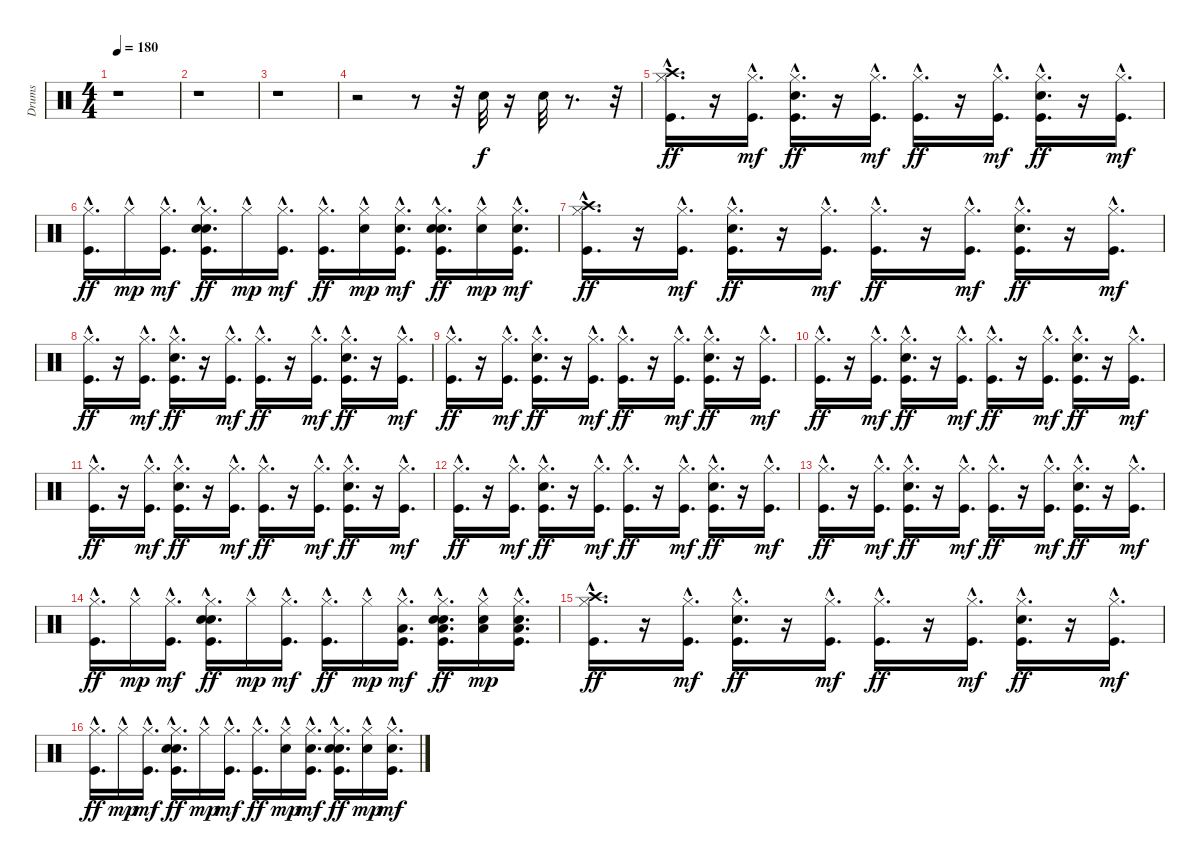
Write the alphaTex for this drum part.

\track ("Drums" "Drums") {instrument percussion}
\staff {score}
\articulation defaults
\ts (4 4)
\tempo 180
\clef neutral
\ks c
r.1{dy f} |
r.1 |
r.1 |
r.2 r.8 r.32 "Snare (hit) 2".32 r.16 "Snare (hit) 2".32 r.8{d} r.32 |
("Crash high (hit)"{hac} "Hi-Hat (closed)"{hac} "Kick (hit)"{hac}).16{d dy ff} r.16 ("Kick (hit)"{hac} "Hi-Hat (closed)"{hac}).16{d dy mf} ("Kick (hit)"{hac} "Hi-Hat (closed)"{hac} "Snare (hit) 2"{hac}).16{d dy ff} r.16 ("Kick (hit)"{hac} "Hi-Hat (closed)"{hac}).16{d dy mf} ("Kick (hit)"{hac} "Hi-Hat (closed)"{hac}).16{d dy ff} r.16 ("Kick (hit)"{hac} "Hi-Hat (closed)"{hac}).16{d dy mf} ("Kick (hit)"{hac} "Hi-Hat (closed)"{hac} "Snare (hit) 2"{hac}).16{d dy ff} r.16 ("Hi-Hat (closed)"{hac} "Kick (hit)"{hac}).16{d dy mf} |
("Kick (hit)"{hac} "Hi-Hat (closed)"{hac}).16{d dy ff} "Hi-Hat (closed)"{hac}.16{dy mp} ("Kick (hit)"{hac} "Hi-Hat (closed)"{hac}).16{d dy mf} ("Hand Clap (hit)"{hac} "Hi-Hat (closed)"{hac} "Kick (hit)"{hac} "Snare (hit) 2"{hac}).16{d dy ff} "Hi-Hat (closed)"{hac}.16{dy mp} ("Kick (hit)"{hac} "Hi-Hat (closed)"{hac}).16{d dy mf} ("Kick (hit)"{hac} "Hi-Hat (closed)"{hac}).16{d dy ff} ("Snare (hit) 2"{hac} "Hi-Hat (closed)"{hac}).16{dy mp} ("Hi-Hat (closed)"{hac} "Snare (hit) 2"{hac} "Kick (hit)"{hac}).16{d dy mf} ("Hi-Hat (closed)"{hac} "Hand Clap (hit)"{hac} "Kick (hit)"{hac} "Snare (hit) 2"{hac}).16{d dy ff} ("Snare (hit) 2"{hac} "Hi-Hat (closed)"{hac}).16{dy mp} ("Snare (hit) 2"{hac} "Hi-Hat (closed)"{hac} "Kick (hit)"{hac}).16{d dy mf} |
("Crash high (hit)"{hac} "Hi-Hat (closed)"{hac} "Kick (hit)"{hac}).16{d dy ff} r.16 ("Kick (hit)"{hac} "Hi-Hat (closed)"{hac}).16{d dy mf} ("Kick (hit)"{hac} "Hi-Hat (closed)"{hac} "Snare (hit) 2"{hac}).16{d dy ff} r.16 ("Hi-Hat (closed)"{hac} "Kick (hit)"{hac}).16{d dy mf} ("Kick (hit)"{hac} "Hi-Hat (closed)"{hac}).16{d dy ff} r.16 ("Kick (hit)"{hac} "Hi-Hat (closed)"{hac}).16{d dy mf} ("Hi-Hat (closed)"{hac} "Snare (hit) 2"{hac} "Kick (hit)"{hac}).16{d dy ff} r.16 ("Hi-Hat (closed)"{hac} "Kick (hit)"{hac}).16{d dy mf} |
("Kick (hit)"{hac} "Hi-Hat (closed)"{hac}).16{d dy ff} r.16 ("Kick (hit)"{hac} "Hi-Hat (closed)"{hac}).16{d dy mf} ("Hi-Hat (closed)"{hac} "Snare (hit) 2"{hac} "Kick (hit)"{hac}).16{d dy ff} r.16 ("Kick (hit)"{hac} "Hi-Hat (closed)"{hac}).16{d dy mf} ("Kick (hit)"{hac} "Hi-Hat (closed)"{hac}).16{d dy ff} r.16 ("Kick (hit)"{hac} "Hi-Hat (closed)"{hac}).16{d dy mf} ("Kick (hit)"{hac} "Snare (hit) 2"{hac} "Hi-Hat (closed)"{hac}).16{d dy ff} r.16 ("Hi-Hat (closed)"{hac} "Kick (hit)"{hac}).16{d dy mf} |
("Kick (hit)"{hac} "Hi-Hat (closed)"{hac}).16{d dy ff} r.16 ("Kick (hit)"{hac} "Hi-Hat (closed)"{hac}).16{d dy mf} ("Kick (hit)"{hac} "Snare (hit) 2"{hac} "Hi-Hat (closed)"{hac}).16{d dy ff} r.16 ("Hi-Hat (closed)"{hac} "Kick (hit)"{hac}).16{d dy mf} ("Hi-Hat (closed)"{hac} "Kick (hit)"{hac}).16{d dy ff} r.16 ("Kick (hit)"{hac} "Hi-Hat (closed)"{hac}).16{d dy mf} ("Kick (hit)"{hac} "Snare (hit) 2"{hac} "Hi-Hat (closed)"{hac}).16{d dy ff} r.16 ("Kick (hit)"{hac} "Hi-Hat (closed)"{hac}).16{d dy mf} |
("Hi-Hat (closed)"{hac} "Kick (hit)"{hac}).16{d dy ff} r.16 ("Kick (hit)"{hac} "Hi-Hat (closed)"{hac}).16{d dy mf} ("Kick (hit)"{hac} "Snare (hit) 2"{hac} "Hi-Hat (closed)"{hac}).16{d dy ff} r.16 ("Kick (hit)"{hac} "Hi-Hat (closed)"{hac}).16{d dy mf} ("Kick (hit)"{hac} "Hi-Hat (closed)"{hac}).16{d dy ff} r.16 ("Kick (hit)"{hac} "Hi-Hat (closed)"{hac}).16{d dy mf} ("Hi-Hat (closed)"{hac} "Snare (hit) 2"{hac} "Kick (hit)"{hac}).16{d dy ff} r.16 ("Kick (hit)"{hac} "Hi-Hat (closed)"{hac}).16{d dy mf} |
("Hi-Hat (closed)"{hac} "Kick (hit)"{hac}).16{d dy ff} r.16 ("Kick (hit)"{hac} "Hi-Hat (closed)"{hac}).16{d dy mf} ("Hi-Hat (closed)"{hac} "Snare (hit) 2"{hac} "Kick (hit)"{hac}).16{d dy ff} r.16 ("Kick (hit)"{hac} "Hi-Hat (closed)"{hac}).16{d dy mf} ("Hi-Hat (closed)"{hac} "Kick (hit)"{hac}).16{d dy ff} r.16 ("Hi-Hat (closed)"{hac} "Kick (hit)"{hac}).16{d dy mf} ("Hi-Hat (closed)"{hac} "Snare (hit) 2"{hac} "Kick (hit)"{hac}).16{d dy ff} r.16 ("Kick (hit)"{hac} "Hi-Hat (closed)"{hac}).16{d dy mf} |
("Kick (hit)"{hac} "Hi-Hat (closed)"{hac}).16{d dy ff} r.16 ("Hi-Hat (closed)"{hac} "Kick (hit)"{hac}).16{d dy mf} ("Hi-Hat (closed)"{hac} "Snare (hit) 2"{hac} "Kick (hit)"{hac}).16{d dy ff} r.16 ("Kick (hit)"{hac} "Hi-Hat (closed)"{hac}).16{d dy mf} ("Kick (hit)"{hac} "Hi-Hat (closed)"{hac}).16{d dy ff} r.16 ("Kick (hit)"{hac} "Hi-Hat (closed)"{hac}).16{d dy mf} ("Snare (hit) 2"{hac} "Kick (hit)"{hac} "Hi-Hat (closed)"{hac}).16{d dy ff} r.16 ("Kick (hit)"{hac} "Hi-Hat (closed)"{hac}).16{d dy mf} |
("Kick (hit)"{hac} "Hi-Hat (closed)"{hac}).16{d dy ff} r.16 ("Kick (hit)"{hac} "Hi-Hat (closed)"{hac}).16{d dy mf} ("Snare (hit) 2"{hac} "Kick (hit)"{hac} "Hi-Hat (closed)"{hac}).16{d dy ff} r.16 ("Kick (hit)"{hac} "Hi-Hat (closed)"{hac}).16{d dy mf} ("Kick (hit)"{hac} "Hi-Hat (closed)"{hac}).16{d dy ff} r.16 ("Kick (hit)"{hac} "Hi-Hat (closed)"{hac}).16{d dy mf} ("Hi-Hat (closed)"{hac} "Snare (hit) 2"{hac} "Kick (hit)"{hac}).16{d dy ff} r.16 ("Kick (hit)"{hac} "Hi-Hat (closed)"{hac}).16{d dy mf} |
("Kick (hit)"{hac} "Hi-Hat (closed)"{hac}).16{d dy ff} "Hi-Hat (closed)"{hac}.16{dy mp} ("Kick (hit)"{hac} "Hi-Hat (closed)"{hac}).16{d dy mf} ("Snare (hit) 2"{hac} "Kick (hit)"{hac} "Hi-Hat (closed)"{hac} "Hand Clap (hit)"{hac}).16{d dy ff} "Hi-Hat (closed)"{hac}.16{dy mp} ("Kick (hit)"{hac} "Hi-Hat (closed)"{hac}).16{d dy mf} ("Kick (hit)"{hac} "Hi-Hat (closed)"{hac}).16{d dy ff} "Hi-Hat (closed)"{hac}.16{dy mp} ("Hi-Hat (closed)"{hac} "Kick (hit)"{hac} "Low Tom (hit)"{hac}).16{d dy mf} ("Hi-Hat (closed)"{hac} "Snare (hit) 2"{hac} "Kick (hit)"{hac} "Low Tom (hit)"{hac} "Hand Clap (hit)"{hac}).16{d dy ff} ("Hi-Hat (closed)"{hac} "Low Tom (hit)"{hac} "Snare (hit) 2"{hac}).16{dy mp} ("Hi-Hat (closed)"{hac} "Low Tom (hit)"{hac} "Kick (hit)"{hac} "Snare (hit) 2"{hac}).16{d} |
("Crash high (hit)"{hac} "Hi-Hat (closed)"{hac} "Kick (hit)"{hac}).16{d dy ff} r.16 ("Kick (hit)"{hac} "Hi-Hat (closed)"{hac}).16{d dy mf} ("Kick (hit)"{hac} "Snare (hit) 2"{hac} "Hi-Hat (closed)"{hac}).16{d dy ff} r.16 ("Kick (hit)"{hac} "Hi-Hat (closed)"{hac}).16{d dy mf} ("Kick (hit)"{hac} "Hi-Hat (closed)"{hac}).16{d dy ff} r.16 ("Hi-Hat (closed)"{hac} "Kick (hit)"{hac}).16{d dy mf} ("Kick (hit)"{hac} "Snare (hit) 2"{hac} "Hi-Hat (closed)"{hac}).16{d dy ff} r.16 ("Kick (hit)"{hac} "Hi-Hat (closed)"{hac}).16{d dy mf} |
("Kick (hit)"{hac} "Hi-Hat (closed)"{hac}).16{d dy ff} "Hi-Hat (closed)"{hac}.16{dy mp} ("Kick (hit)"{hac} "Hi-Hat (closed)"{hac}).16{d dy mf} ("Kick (hit)"{hac} "Hand Clap (hit)"{hac} "Hi-Hat (closed)"{hac} "Snare (hit) 2"{hac}).16{d dy ff} "Hi-Hat (closed)"{hac}.16{dy mp} ("Kick (hit)"{hac} "Hi-Hat (closed)"{hac}).16{d dy mf} ("Hi-Hat (closed)"{hac} "Kick (hit)"{hac}).16{d dy ff} ("Snare (hit) 2"{hac} "Hi-Hat (closed)"{hac}).16{dy mp} ("Hi-Hat (closed)"{hac} "Snare (hit) 2"{hac} "Kick (hit)"{hac}).16{d dy mf} ("Hand Clap (hit)"{hac} "Snare (hit) 2"{hac} "Kick (hit)"{hac} "Hi-Hat (closed)"{hac}).16{d dy ff} ("Hi-Hat (closed)"{hac} "Snare (hit) 2"{hac}).16{dy mp} ("Hi-Hat (closed)"{hac} "Snare (hit) 2"{hac} "Kick (hit)"{hac}).16{d dy mf}
